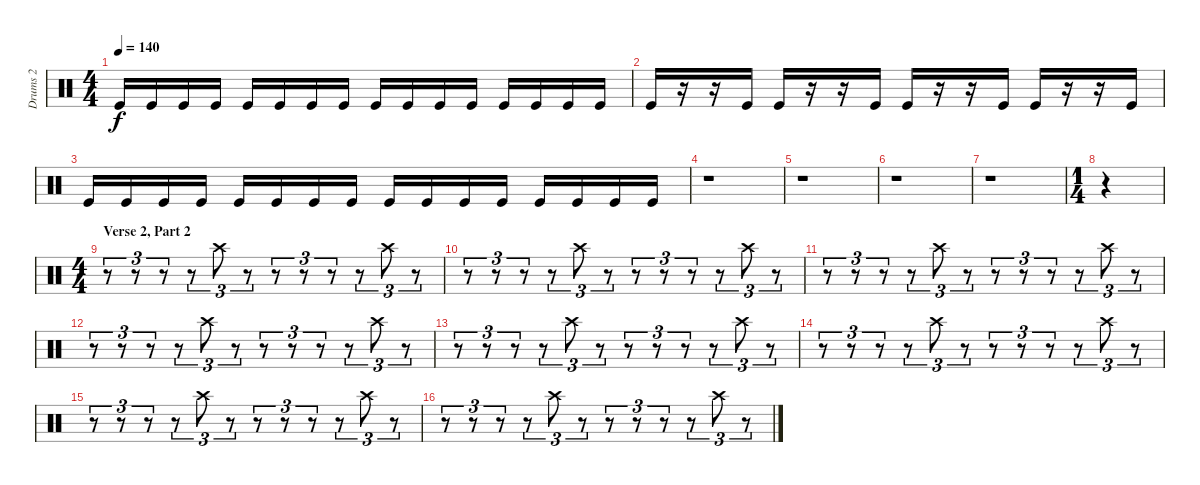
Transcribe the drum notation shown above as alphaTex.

\track ("Drums 2" "Drums 2") {instrument percussion}
\staff {score}
\articulation defaults
\ts (4 4)
\tempo 140
\clef neutral
\ks c "Kick (hit)".16{dy f} "Kick (hit)".16 "Kick (hit)".16 "Kick (hit)".16 "Kick (hit)".16 "Kick (hit)".16 "Kick (hit)".16 "Kick (hit)".16 "Kick (hit)".16 "Kick (hit)".16 "Kick (hit)".16 "Kick (hit)".16 "Kick (hit)".16 "Kick (hit)".16 "Kick (hit)".16 "Kick (hit)".16
|
"Kick (hit)".16 r.16 r.16 "Kick (hit)".16 "Kick (hit)".16 r.16 r.16 "Kick (hit)".16 "Kick (hit)".16 r.16 r.16 "Kick (hit)".16 "Kick (hit)".16 r.16 r.16 "Kick (hit)".16 |
"Kick (hit)".16 "Kick (hit)".16 "Kick (hit)".16 "Kick (hit)".16 "Kick (hit)".16 "Kick (hit)".16 "Kick (hit)".16 "Kick (hit)".16 "Kick (hit)".16 "Kick (hit)".16 "Kick (hit)".16 "Kick (hit)".16 "Kick (hit)".16 "Kick (hit)".16 "Kick (hit)".16 "Kick (hit)".16 |
r.1 |
r.1 |
r.1 |
r.1 |
\ts (1 4)
r.4 |
\ts (4 4)
\section ("" "Verse 2, Part 2")
r.8{tu (3 2)} r.8{tu (3 2)} r.8{tu (3 2)} r.8{tu (3 2)} "Crash high (hit)".8{tu (3 2)} r.8{tu (3 2)} r.8{tu (3 2)} r.8{tu (3 2)} r.8{tu (3 2)} r.8{tu (3 2)} "Crash high (hit)".8{tu (3 2)} r.8{tu (3 2)} |
r.8{tu (3 2)} r.8{tu (3 2)} r.8{tu (3 2)} r.8{tu (3 2)} "Crash high (hit)".8{tu (3 2)} r.8{tu (3 2)} r.8{tu (3 2)} r.8{tu (3 2)} r.8{tu (3 2)} r.8{tu (3 2)} "Crash high (hit)".8{tu (3 2)} r.8{tu (3 2)} |
r.8{tu (3 2)} r.8{tu (3 2)} r.8{tu (3 2)} r.8{tu (3 2)} "Crash high (hit)".8{tu (3 2)} r.8{tu (3 2)} r.8{tu (3 2)} r.8{tu (3 2)} r.8{tu (3 2)} r.8{tu (3 2)} "Crash high (hit)".8{tu (3 2)} r.8{tu (3 2)} |
r.8{tu (3 2)} r.8{tu (3 2)} r.8{tu (3 2)} r.8{tu (3 2)} "Crash high (hit)".8{tu (3 2)} r.8{tu (3 2)} r.8{tu (3 2)} r.8{tu (3 2)} r.8{tu (3 2)} r.8{tu (3 2)} "Crash high (hit)".8{tu (3 2)} r.8{tu (3 2)} |
r.8{tu (3 2)} r.8{tu (3 2)} r.8{tu (3 2)} r.8{tu (3 2)} "Crash high (hit)".8{tu (3 2)} r.8{tu (3 2)} r.8{tu (3 2)} r.8{tu (3 2)} r.8{tu (3 2)} r.8{tu (3 2)} "Crash high (hit)".8{tu (3 2)} r.8{tu (3 2)} |
r.8{tu (3 2)} r.8{tu (3 2)} r.8{tu (3 2)} r.8{tu (3 2)} "Crash high (hit)".8{tu (3 2)} r.8{tu (3 2)} r.8{tu (3 2)} r.8{tu (3 2)} r.8{tu (3 2)} r.8{tu (3 2)} "Crash high (hit)".8{tu (3 2)} r.8{tu (3 2)} |
r.8{tu (3 2)} r.8{tu (3 2)} r.8{tu (3 2)} r.8{tu (3 2)} "Crash high (hit)".8{tu (3 2)} r.8{tu (3 2)} r.8{tu (3 2)} r.8{tu (3 2)} r.8{tu (3 2)} r.8{tu (3 2)} "Crash high (hit)".8{tu (3 2)} r.8{tu (3 2)} |
r.8{tu (3 2)} r.8{tu (3 2)} r.8{tu (3 2)} r.8{tu (3 2)} "Crash high (hit)".8{tu (3 2)} r.8{tu (3 2)} r.8{tu (3 2)} r.8{tu (3 2)} r.8{tu (3 2)} r.8{tu (3 2)} "Crash high (hit)".8{tu (3 2)} r.8{tu (3 2)}
